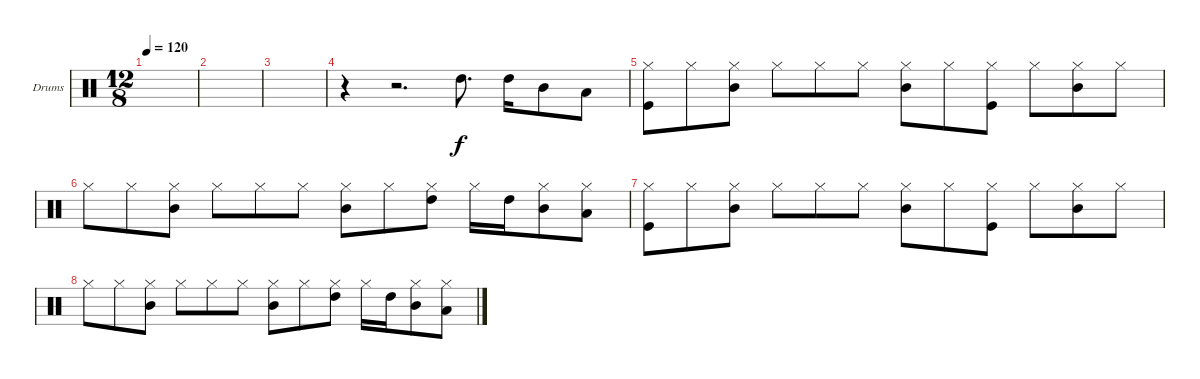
\defaultSystemsLayout 4
\bracketExtendMode groupsimilarinstruments
\firstSystemTrackNameOrientation horizontal
\otherSystemsTrackNameOrientation horizontal
\track ("Drumkit" "Drums") {instrument percussion}
\staff {score}
\articulation defaults
\ts (12 8)
\tempo 120
\clef neutral
\ks c
|
|
|
r.4 r.2{d} "High Tom (hit)".8{d} "High Tom (hit)".16 "Mid Tom (hit)".8 "Low Tom (hit)".8 |
("Kick (hit)" "Hi-Hat (closed)").8 "Hi-Hat (closed)".8 ("Mid Tom (hit)" "Hi-Hat (closed)").8 "Hi-Hat (closed)".8 "Hi-Hat (closed)".8 "Hi-Hat (closed)".8 ("Mid Tom (hit)" "Hi-Hat (closed)").8 "Hi-Hat (closed)".8 ("Kick (hit)" "Hi-Hat (closed)").8 "Hi-Hat (closed)".8 ("Mid Tom (hit)" "Hi-Hat (closed)").8 "Hi-Hat (closed)".8 |
"Hi-Hat (closed)".8 "Hi-Hat (closed)".8 ("Mid Tom (hit)" "Hi-Hat (closed)").8 "Hi-Hat (closed)".8 "Hi-Hat (closed)".8 "Hi-Hat (closed)".8 ("Mid Tom (hit)" "Hi-Hat (closed)").8 "Hi-Hat (closed)".8 ("High Tom (hit)" "Hi-Hat (closed)").8 "Hi-Hat (closed)".16 "High Tom (hit)".16 ("Mid Tom (hit)" "Hi-Hat (closed)").8 ("Low Tom (hit)" "Hi-Hat (closed)").8 |
("Kick (hit)" "Hi-Hat (closed)").8 "Hi-Hat (closed)".8 ("Mid Tom (hit)" "Hi-Hat (closed)").8 "Hi-Hat (closed)".8 "Hi-Hat (closed)".8 "Hi-Hat (closed)".8 ("Mid Tom (hit)" "Hi-Hat (closed)").8 "Hi-Hat (closed)".8 ("Kick (hit)" "Hi-Hat (closed)").8 "Hi-Hat (closed)".8 ("Mid Tom (hit)" "Hi-Hat (closed)").8 "Hi-Hat (closed)".8 |
"Hi-Hat (closed)".8 "Hi-Hat (closed)".8 ("Mid Tom (hit)" "Hi-Hat (closed)").8 "Hi-Hat (closed)".8 "Hi-Hat (closed)".8 "Hi-Hat (closed)".8 ("Mid Tom (hit)" "Hi-Hat (closed)").8 "Hi-Hat (closed)".8 ("High Tom (hit)" "Hi-Hat (closed)").8 "Hi-Hat (closed)".16 "High Tom (hit)".16 ("Mid Tom (hit)" "Hi-Hat (closed)").8 ("Low Tom (hit)" "Hi-Hat (closed)").8
